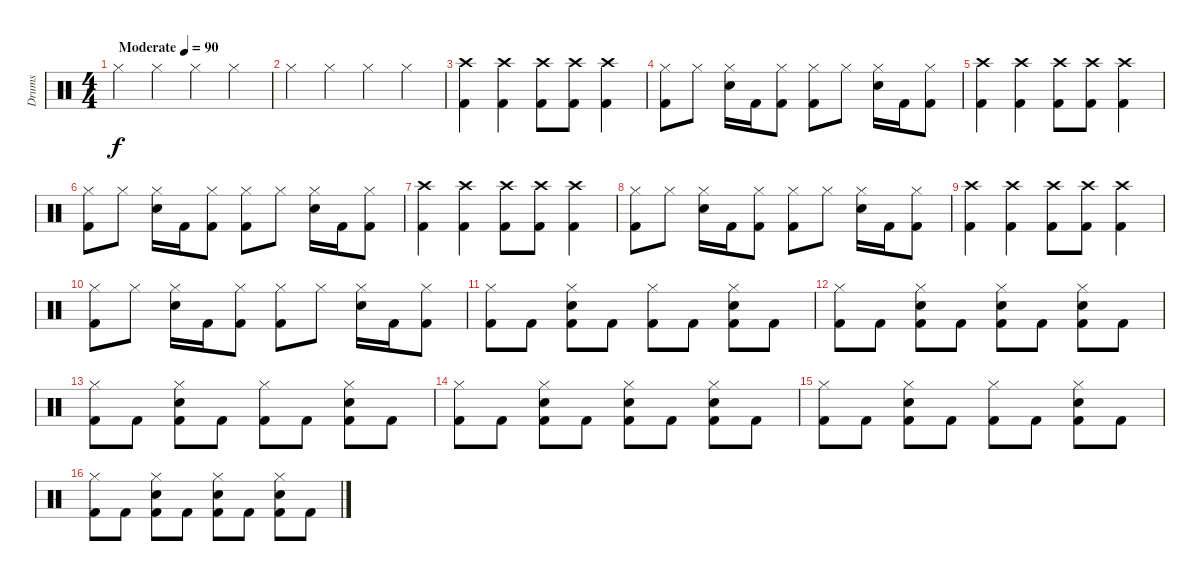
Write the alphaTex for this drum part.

\track ("Drums" "Drums") {instrument percussion}
\staff {score}
\articulation defaults
\ts (4 4)
\tempo (90 "Moderate")
\clef neutral
\ks c "Hi-Hat (closed)".4{dy f} "Hi-Hat (closed)".4 "Hi-Hat (closed)".4 "Hi-Hat (closed)".4
|
"Hi-Hat (closed)".4 "Hi-Hat (closed)".4 "Hi-Hat (closed)".4 "Hi-Hat (closed)".4 |
("Crash high (hit)" "Kick (hit) 2").4 ("Crash high (hit)" "Kick (hit) 2").4 ("Crash high (hit)" "Kick (hit) 2").8 ("Crash high (hit)" "Kick (hit) 2").8 ("Crash high (hit)" "Kick (hit) 2").4 |
("Hi-Hat (closed)" "Kick (hit) 2").8 "Hi-Hat (closed)".8 ("Hi-Hat (closed)" "Snare (hit) 2").16 "Kick (hit) 2".16 ("Hi-Hat (closed)" "Kick (hit) 2").8 ("Hi-Hat (closed)" "Kick (hit) 2").8 "Hi-Hat (closed)".8 ("Hi-Hat (closed)" "Snare (hit) 2").16 "Kick (hit) 2".16 ("Hi-Hat (closed)" "Kick (hit) 2").8 |
("Crash high (hit)" "Kick (hit) 2").4 ("Crash high (hit)" "Kick (hit) 2").4 ("Crash high (hit)" "Kick (hit) 2").8 ("Crash high (hit)" "Kick (hit) 2").8 ("Crash high (hit)" "Kick (hit) 2").4 |
("Hi-Hat (closed)" "Kick (hit) 2").8 "Hi-Hat (closed)".8 ("Hi-Hat (closed)" "Snare (hit) 2").16 "Kick (hit) 2".16 ("Hi-Hat (closed)" "Kick (hit) 2").8 ("Hi-Hat (closed)" "Kick (hit) 2").8 "Hi-Hat (closed)".8 ("Hi-Hat (closed)" "Snare (hit) 2").16 "Kick (hit) 2".16 ("Hi-Hat (closed)" "Kick (hit) 2").8 |
("Crash high (hit)" "Kick (hit) 2").4 ("Crash high (hit)" "Kick (hit) 2").4 ("Crash high (hit)" "Kick (hit) 2").8 ("Crash high (hit)" "Kick (hit) 2").8 ("Crash high (hit)" "Kick (hit) 2").4 |
("Hi-Hat (closed)" "Kick (hit) 2").8 "Hi-Hat (closed)".8 ("Hi-Hat (closed)" "Snare (hit) 2").16 "Kick (hit) 2".16 ("Hi-Hat (closed)" "Kick (hit) 2").8 ("Hi-Hat (closed)" "Kick (hit) 2").8 "Hi-Hat (closed)".8 ("Hi-Hat (closed)" "Snare (hit) 2").16 "Kick (hit) 2".16 ("Hi-Hat (closed)" "Kick (hit) 2").8 |
("Crash high (hit)" "Kick (hit) 2").4 ("Crash high (hit)" "Kick (hit) 2").4 ("Crash high (hit)" "Kick (hit) 2").8 ("Crash high (hit)" "Kick (hit) 2").8 ("Crash high (hit)" "Kick (hit) 2").4 |
("Hi-Hat (closed)" "Kick (hit) 2").8 "Hi-Hat (closed)".8 ("Hi-Hat (closed)" "Snare (hit) 2").16 "Kick (hit) 2".16 ("Hi-Hat (closed)" "Kick (hit) 2").8 ("Hi-Hat (closed)" "Kick (hit) 2").8 "Hi-Hat (closed)".8 ("Hi-Hat (closed)" "Snare (hit) 2").16 "Kick (hit) 2".16 ("Hi-Hat (closed)" "Kick (hit) 2").8 |
("Hi-Hat (closed)" "Kick (hit) 2").8 "Kick (hit) 2".8 ("Hi-Hat (closed)" "Kick (hit) 2" "Snare (hit) 2").8 "Kick (hit) 2".8 ("Hi-Hat (closed)" "Kick (hit) 2").8 "Kick (hit) 2".8 ("Hi-Hat (closed)" "Kick (hit) 2" "Snare (hit) 2").8 "Kick (hit) 2".8 |
("Hi-Hat (closed)" "Kick (hit) 2").8 "Kick (hit) 2".8 ("Hi-Hat (closed)" "Kick (hit) 2" "Snare (hit) 2").8 "Kick (hit) 2".8 ("Hi-Hat (closed)" "Kick (hit) 2" "Snare (hit) 2").8 "Kick (hit) 2".8 ("Hi-Hat (closed)" "Kick (hit) 2" "Snare (hit) 2").8 "Kick (hit) 2".8 |
("Hi-Hat (closed)" "Kick (hit) 2").8 "Kick (hit) 2".8 ("Hi-Hat (closed)" "Kick (hit) 2" "Snare (hit) 2").8 "Kick (hit) 2".8 ("Hi-Hat (closed)" "Kick (hit) 2").8 "Kick (hit) 2".8 ("Hi-Hat (closed)" "Kick (hit) 2" "Snare (hit) 2").8 "Kick (hit) 2".8 |
("Hi-Hat (closed)" "Kick (hit) 2").8 "Kick (hit) 2".8 ("Hi-Hat (closed)" "Kick (hit) 2" "Snare (hit) 2").8 "Kick (hit) 2".8 ("Hi-Hat (closed)" "Kick (hit) 2" "Snare (hit) 2").8 "Kick (hit) 2".8 ("Hi-Hat (closed)" "Kick (hit) 2" "Snare (hit) 2").8 "Kick (hit) 2".8 |
("Hi-Hat (closed)" "Kick (hit) 2").8 "Kick (hit) 2".8 ("Hi-Hat (closed)" "Kick (hit) 2" "Snare (hit) 2").8 "Kick (hit) 2".8 ("Hi-Hat (closed)" "Kick (hit) 2").8 "Kick (hit) 2".8 ("Hi-Hat (closed)" "Kick (hit) 2" "Snare (hit) 2").8 "Kick (hit) 2".8 |
("Hi-Hat (closed)" "Kick (hit) 2").8 "Kick (hit) 2".8 ("Hi-Hat (closed)" "Kick (hit) 2" "Snare (hit) 2").8 "Kick (hit) 2".8 ("Hi-Hat (closed)" "Kick (hit) 2" "Snare (hit) 2").8 "Kick (hit) 2".8 ("Hi-Hat (closed)" "Kick (hit) 2" "Snare (hit) 2").8 "Kick (hit) 2".8
